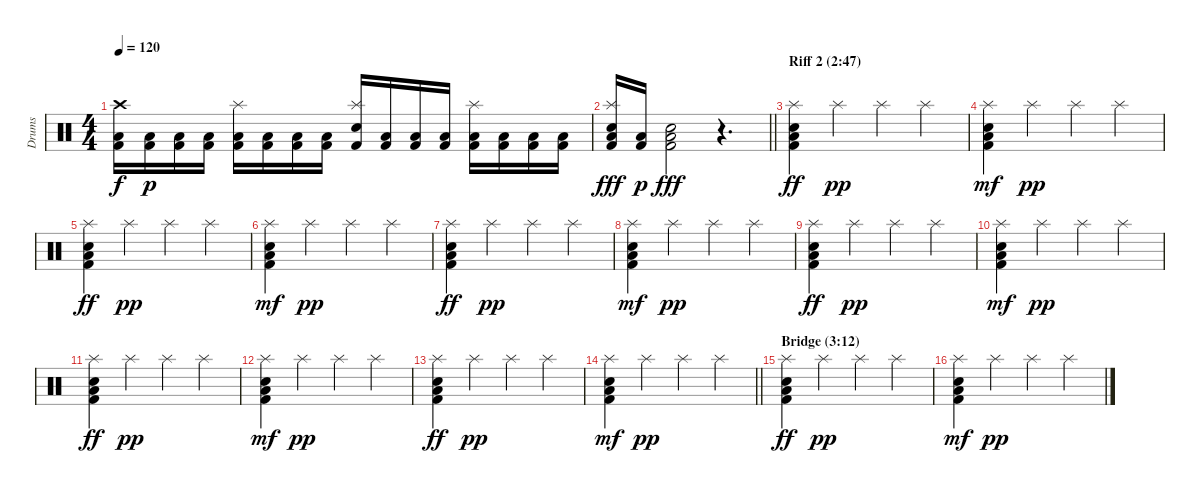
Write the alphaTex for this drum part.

\track ("Drums" "Drums") {instrument percussion}
\staff {score}
\articulation defaults
\ts (4 4)
\tempo 120
\clef neutral
\ks c
("Crash high (hit)" "Low Floor Tom (hit)" "Kick (hit) 2").16{dy f} ("Low Floor Tom (hit)" "Kick (hit) 2").16{dy p} ("Low Floor Tom (hit)" "Kick (hit) 2").16 ("Low Floor Tom (hit)" "Kick (hit) 2").16 ("Splash (hit)" "Low Floor Tom (hit)" "Kick (hit) 2").16 ("Low Floor Tom (hit)" "Kick (hit) 2").16 ("Low Floor Tom (hit)" "Kick (hit) 2").16 ("Low Floor Tom (hit)" "Kick (hit) 2").16 ("Splash (hit)" "Snare (hit) 2" "Kick (hit) 2").16 ("Low Floor Tom (hit)" "Kick (hit) 2").16 ("Low Floor Tom (hit)" "Kick (hit) 2").16 ("Low Floor Tom (hit)" "Kick (hit) 2").16 ("Splash (hit)" "Low Floor Tom (hit)" "Kick (hit) 2").16 ("Low Floor Tom (hit)" "Kick (hit) 2").16 ("Low Floor Tom (hit)" "Kick (hit) 2").16 ("Low Floor Tom (hit)" "Kick (hit) 2").16 |
\barLineRight lightlight
("Splash (hit)" "Snare (hit) 2" "Low Floor Tom (hit)" "Kick (hit) 2").16{dy fff} ("Low Floor Tom (hit)" "Kick (hit) 2").16{dy p} ("Snare (hit) 2" "Low Floor Tom (hit)" "Kick (hit) 2").2{dy fff} r.4{d} |
\section ("" "Riff 2 (2:47)")
("Splash (hit)" "Snare (hit) 2" "Low Floor Tom (hit)" "Kick (hit) 2").4{dy ff volume 14} "Splash (hit)".4{dy pp} "Splash (hit)".4 "Splash (hit)".4 |
("Splash (hit)" "Low Floor Tom (hit)" "Snare (hit) 2" "Kick (hit) 2").4{dy mf} "Splash (hit)".4{dy pp} "Splash (hit)".4 "Splash (hit)".4 |
("Splash (hit)" "Snare (hit) 2" "Low Floor Tom (hit)" "Kick (hit) 2").4{dy ff} "Splash (hit)".4{dy pp} "Splash (hit)".4 "Splash (hit)".4 |
("Splash (hit)" "Low Floor Tom (hit)" "Snare (hit) 2" "Kick (hit) 2").4{dy mf} "Splash (hit)".4{dy pp} "Splash (hit)".4 "Splash (hit)".4 |
("Splash (hit)" "Snare (hit) 2" "Low Floor Tom (hit)" "Kick (hit) 2").4{dy ff} "Splash (hit)".4{dy pp} "Splash (hit)".4 "Splash (hit)".4 |
("Splash (hit)" "Low Floor Tom (hit)" "Snare (hit) 2" "Kick (hit) 2").4{dy mf} "Splash (hit)".4{dy pp} "Splash (hit)".4 "Splash (hit)".4 |
("Splash (hit)" "Snare (hit) 2" "Low Floor Tom (hit)" "Kick (hit) 2").4{dy ff} "Splash (hit)".4{dy pp} "Splash (hit)".4 "Splash (hit)".4 |
("Splash (hit)" "Low Floor Tom (hit)" "Snare (hit) 2" "Kick (hit) 2").4{dy mf} "Splash (hit)".4{dy pp} "Splash (hit)".4 "Splash (hit)".4 |
("Splash (hit)" "Snare (hit) 2" "Low Floor Tom (hit)" "Kick (hit) 2").4{dy ff} "Splash (hit)".4{dy pp} "Splash (hit)".4 "Splash (hit)".4 |
("Splash (hit)" "Low Floor Tom (hit)" "Snare (hit) 2" "Kick (hit) 2").4{dy mf} "Splash (hit)".4{dy pp} "Splash (hit)".4 "Splash (hit)".4 |
("Splash (hit)" "Snare (hit) 2" "Low Floor Tom (hit)" "Kick (hit) 2").4{dy ff} "Splash (hit)".4{dy pp} "Splash (hit)".4 "Splash (hit)".4 |
\barLineRight lightlight
("Splash (hit)" "Low Floor Tom (hit)" "Snare (hit) 2" "Kick (hit) 2").4{dy mf} "Splash (hit)".4{dy pp} "Splash (hit)".4 "Splash (hit)".4 |
\section ("" "Bridge (3:12)")
("Splash (hit)" "Snare (hit) 2" "Low Floor Tom (hit)" "Kick (hit) 2").4{dy ff} "Splash (hit)".4{dy pp} "Splash (hit)".4 "Splash (hit)".4 |
("Splash (hit)" "Low Floor Tom (hit)" "Snare (hit) 2" "Kick (hit) 2").4{dy mf} "Splash (hit)".4{dy pp} "Splash (hit)".4 "Splash (hit)".4
